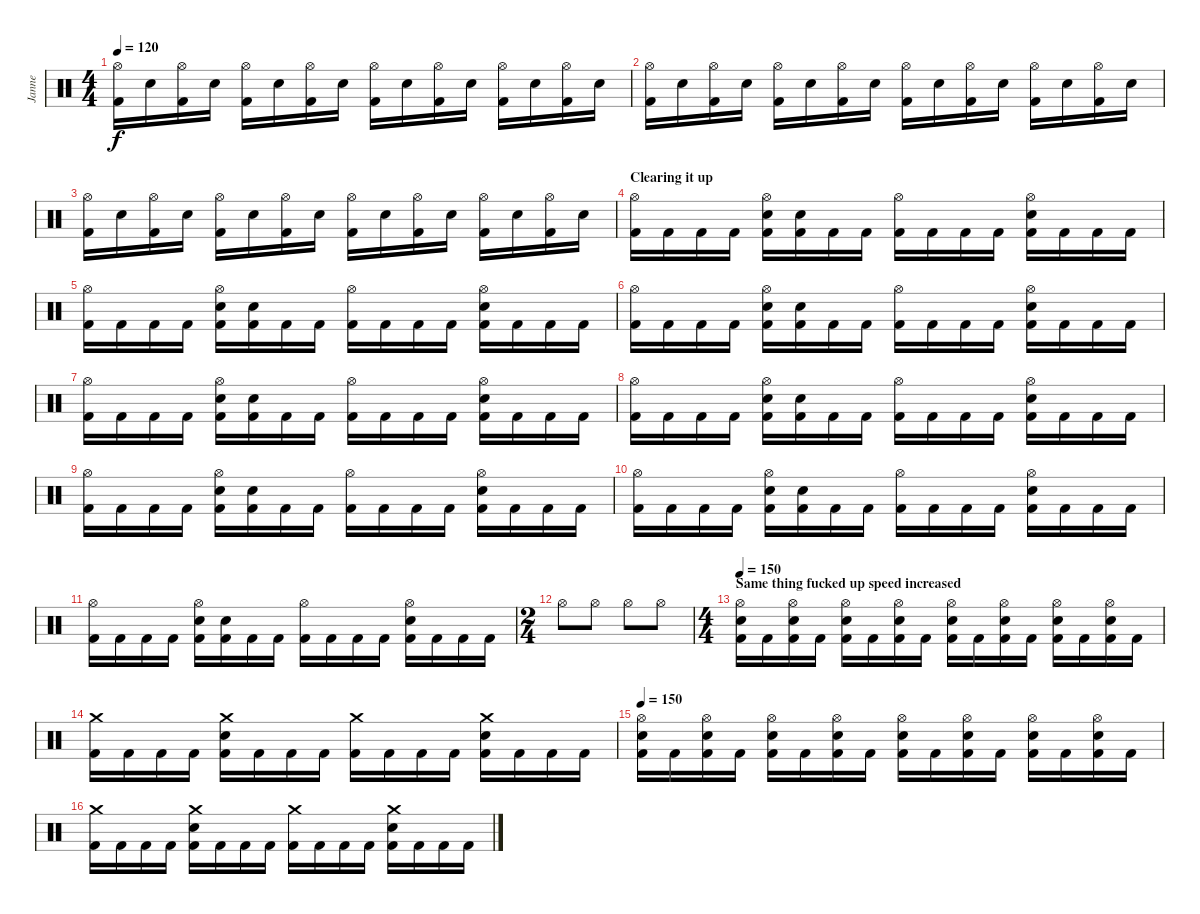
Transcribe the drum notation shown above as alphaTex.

\track ("Janne" "Janne") {instrument percussion}
\staff {score}
\articulation defaults
\ts (4 4)
\tempo 120
\clef neutral
\ks c
("Hi-Hat (open)" "Kick (hit) 2").16{dy f} "Electric Snare (hit)".16 ("Hi-Hat (open)" "Kick (hit) 2").16 "Electric Snare (hit)".16 ("Hi-Hat (open)" "Kick (hit) 2").16 "Electric Snare (hit)".16 ("Hi-Hat (open)" "Kick (hit) 2").16 "Electric Snare (hit)".16 ("Hi-Hat (open)" "Kick (hit) 2").16 "Electric Snare (hit)".16 ("Hi-Hat (open)" "Kick (hit) 2").16 "Electric Snare (hit)".16 ("Hi-Hat (open)" "Kick (hit) 2").16 "Electric Snare (hit)".16 ("Hi-Hat (open)" "Kick (hit) 2").16 "Electric Snare (hit)".16 |
("Hi-Hat (open)" "Kick (hit) 2").16 "Electric Snare (hit)".16 ("Hi-Hat (open)" "Kick (hit) 2").16 "Electric Snare (hit)".16 ("Hi-Hat (open)" "Kick (hit) 2").16 "Electric Snare (hit)".16 ("Hi-Hat (open)" "Kick (hit) 2").16 "Electric Snare (hit)".16 ("Hi-Hat (open)" "Kick (hit) 2").16 "Electric Snare (hit)".16 ("Hi-Hat (open)" "Kick (hit) 2").16 "Electric Snare (hit)".16 ("Hi-Hat (open)" "Kick (hit) 2").16 "Electric Snare (hit)".16 ("Hi-Hat (open)" "Kick (hit) 2").16 "Electric Snare (hit)".16 |
("Hi-Hat (open)" "Kick (hit) 2").16 "Electric Snare (hit)".16 ("Hi-Hat (open)" "Kick (hit) 2").16 "Electric Snare (hit)".16 ("Hi-Hat (open)" "Kick (hit) 2").16 "Electric Snare (hit)".16 ("Hi-Hat (open)" "Kick (hit) 2").16 "Electric Snare (hit)".16 ("Hi-Hat (open)" "Kick (hit) 2").16 "Electric Snare (hit)".16 ("Hi-Hat (open)" "Kick (hit) 2").16 "Electric Snare (hit)".16 ("Hi-Hat (open)" "Kick (hit) 2").16 "Electric Snare (hit)".16 ("Hi-Hat (open)" "Kick (hit) 2").16 "Electric Snare (hit)".16 |
\section ("" "Clearing it up")
("Hi-Hat (open)" "Kick (hit) 2").16 "Kick (hit) 2".16 "Kick (hit) 2".16 "Kick (hit) 2".16 ("Hi-Hat (open)" "Electric Snare (hit)" "Kick (hit) 2").16 ("Electric Snare (hit)" "Kick (hit) 2").16 "Kick (hit) 2".16 "Kick (hit) 2".16 ("Hi-Hat (open)" "Kick (hit) 2").16 "Kick (hit) 2".16 "Kick (hit) 2".16 "Kick (hit) 2".16 ("Hi-Hat (open)" "Electric Snare (hit)" "Kick (hit) 2").16 "Kick (hit) 2".16 "Kick (hit) 2".16 "Kick (hit) 2".16 |
("Hi-Hat (open)" "Kick (hit) 2").16 "Kick (hit) 2".16 "Kick (hit) 2".16 "Kick (hit) 2".16 ("Hi-Hat (open)" "Electric Snare (hit)" "Kick (hit) 2").16 ("Electric Snare (hit)" "Kick (hit) 2").16 "Kick (hit) 2".16 "Kick (hit) 2".16 ("Hi-Hat (open)" "Kick (hit) 2").16 "Kick (hit) 2".16 "Kick (hit) 2".16 "Kick (hit) 2".16 ("Hi-Hat (open)" "Electric Snare (hit)" "Kick (hit) 2").16 "Kick (hit) 2".16 "Kick (hit) 2".16 "Kick (hit) 2".16 |
("Hi-Hat (open)" "Kick (hit) 2").16 "Kick (hit) 2".16 "Kick (hit) 2".16 "Kick (hit) 2".16 ("Hi-Hat (open)" "Electric Snare (hit)" "Kick (hit) 2").16 ("Electric Snare (hit)" "Kick (hit) 2").16 "Kick (hit) 2".16 "Kick (hit) 2".16 ("Hi-Hat (open)" "Kick (hit) 2").16 "Kick (hit) 2".16 "Kick (hit) 2".16 "Kick (hit) 2".16 ("Hi-Hat (open)" "Electric Snare (hit)" "Kick (hit) 2").16 "Kick (hit) 2".16 "Kick (hit) 2".16 "Kick (hit) 2".16 |
("Hi-Hat (open)" "Kick (hit) 2").16 "Kick (hit) 2".16 "Kick (hit) 2".16 "Kick (hit) 2".16 ("Hi-Hat (open)" "Electric Snare (hit)" "Kick (hit) 2").16 ("Electric Snare (hit)" "Kick (hit) 2").16 "Kick (hit) 2".16 "Kick (hit) 2".16 ("Hi-Hat (open)" "Kick (hit) 2").16 "Kick (hit) 2".16 "Kick (hit) 2".16 "Kick (hit) 2".16 ("Hi-Hat (open)" "Electric Snare (hit)" "Kick (hit) 2").16 "Kick (hit) 2".16 "Kick (hit) 2".16 "Kick (hit) 2".16 |
("Hi-Hat (open)" "Kick (hit) 2").16 "Kick (hit) 2".16 "Kick (hit) 2".16 "Kick (hit) 2".16 ("Hi-Hat (open)" "Electric Snare (hit)" "Kick (hit) 2").16 ("Electric Snare (hit)" "Kick (hit) 2").16 "Kick (hit) 2".16 "Kick (hit) 2".16 ("Hi-Hat (open)" "Kick (hit) 2").16 "Kick (hit) 2".16 "Kick (hit) 2".16 "Kick (hit) 2".16 ("Hi-Hat (open)" "Electric Snare (hit)" "Kick (hit) 2").16 "Kick (hit) 2".16 "Kick (hit) 2".16 "Kick (hit) 2".16 |
("Hi-Hat (open)" "Kick (hit) 2").16 "Kick (hit) 2".16 "Kick (hit) 2".16 "Kick (hit) 2".16 ("Hi-Hat (open)" "Electric Snare (hit)" "Kick (hit) 2").16 ("Electric Snare (hit)" "Kick (hit) 2").16 "Kick (hit) 2".16 "Kick (hit) 2".16 ("Hi-Hat (open)" "Kick (hit) 2").16 "Kick (hit) 2".16 "Kick (hit) 2".16 "Kick (hit) 2".16 ("Hi-Hat (open)" "Electric Snare (hit)" "Kick (hit) 2").16 "Kick (hit) 2".16 "Kick (hit) 2".16 "Kick (hit) 2".16 |
("Hi-Hat (open)" "Kick (hit) 2").16 "Kick (hit) 2".16 "Kick (hit) 2".16 "Kick (hit) 2".16 ("Hi-Hat (open)" "Electric Snare (hit)" "Kick (hit) 2").16 ("Electric Snare (hit)" "Kick (hit) 2").16 "Kick (hit) 2".16 "Kick (hit) 2".16 ("Hi-Hat (open)" "Kick (hit) 2").16 "Kick (hit) 2".16 "Kick (hit) 2".16 "Kick (hit) 2".16 ("Hi-Hat (open)" "Electric Snare (hit)" "Kick (hit) 2").16 "Kick (hit) 2".16 "Kick (hit) 2".16 "Kick (hit) 2".16 |
("Hi-Hat (open)" "Kick (hit) 2").16 "Kick (hit) 2".16 "Kick (hit) 2".16 "Kick (hit) 2".16 ("Hi-Hat (open)" "Electric Snare (hit)" "Kick (hit) 2").16 ("Electric Snare (hit)" "Kick (hit) 2").16 "Kick (hit) 2".16 "Kick (hit) 2".16 ("Hi-Hat (open)" "Kick (hit) 2").16 "Kick (hit) 2".16 "Kick (hit) 2".16 "Kick (hit) 2".16 ("Hi-Hat (open)" "Electric Snare (hit)" "Kick (hit) 2").16 "Kick (hit) 2".16 "Kick (hit) 2".16 "Kick (hit) 2".16 |
\ts (2 4)
"Hi-Hat (open)".8 "Hi-Hat (open)".8 "Hi-Hat (open)".8 "Hi-Hat (open)".8 |
\ts (4 4)
\section ("" "Same thing fucked up speed increased")
\tempo 150
("Hi-Hat (open)" "Electric Snare (hit)" "Kick (hit) 2").16 "Kick (hit) 2".16 ("Hi-Hat (open)" "Electric Snare (hit)" "Kick (hit) 2").16 "Kick (hit) 2".16 ("Hi-Hat (open)" "Electric Snare (hit)" "Kick (hit) 2").16 "Kick (hit) 2".16 ("Hi-Hat (open)" "Electric Snare (hit)" "Kick (hit) 2").16 "Kick (hit) 2".16 ("Hi-Hat (open)" "Electric Snare (hit)" "Kick (hit) 2").16 "Kick (hit) 2".16 ("Hi-Hat (open)" "Electric Snare (hit)" "Kick (hit) 2").16 "Kick (hit) 2".16 ("Hi-Hat (open)" "Electric Snare (hit)" "Kick (hit) 2").16 "Kick (hit) 2".16 ("Hi-Hat (open)" "Electric Snare (hit)" "Kick (hit) 2").16 "Kick (hit) 2".16 |
("Crash medium (hit)" "Kick (hit) 2").16 "Kick (hit) 2".16 "Kick (hit) 2".16 "Kick (hit) 2".16 ("Crash medium (hit)" "Electric Snare (hit)" "Kick (hit) 2").16 "Kick (hit) 2".16 "Kick (hit) 2".16 "Kick (hit) 2".16 ("Crash medium (hit)" "Kick (hit) 2").16 "Kick (hit) 2".16 "Kick (hit) 2".16 "Kick (hit) 2".16 ("Crash medium (hit)" "Electric Snare (hit)" "Kick (hit) 2").16 "Kick (hit) 2".16 "Kick (hit) 2".16 "Kick (hit) 2".16 |
\tempo 150
("Hi-Hat (open)" "Electric Snare (hit)" "Kick (hit) 2").16 "Kick (hit) 2".16 ("Hi-Hat (open)" "Electric Snare (hit)" "Kick (hit) 2").16 "Kick (hit) 2".16 ("Hi-Hat (open)" "Electric Snare (hit)" "Kick (hit) 2").16 "Kick (hit) 2".16 ("Hi-Hat (open)" "Electric Snare (hit)" "Kick (hit) 2").16 "Kick (hit) 2".16 ("Hi-Hat (open)" "Electric Snare (hit)" "Kick (hit) 2").16 "Kick (hit) 2".16 ("Hi-Hat (open)" "Electric Snare (hit)" "Kick (hit) 2").16 "Kick (hit) 2".16 ("Hi-Hat (open)" "Electric Snare (hit)" "Kick (hit) 2").16 "Kick (hit) 2".16 ("Hi-Hat (open)" "Electric Snare (hit)" "Kick (hit) 2").16 "Kick (hit) 2".16 |
("Crash medium (hit)" "Kick (hit) 2").16 "Kick (hit) 2".16 "Kick (hit) 2".16 "Kick (hit) 2".16 ("Crash medium (hit)" "Electric Snare (hit)" "Kick (hit) 2").16 "Kick (hit) 2".16 "Kick (hit) 2".16 "Kick (hit) 2".16 ("Crash medium (hit)" "Kick (hit) 2").16 "Kick (hit) 2".16 "Kick (hit) 2".16 "Kick (hit) 2".16 ("Crash medium (hit)" "Electric Snare (hit)" "Kick (hit) 2").16 "Kick (hit) 2".16 "Kick (hit) 2".16 "Kick (hit) 2".16
